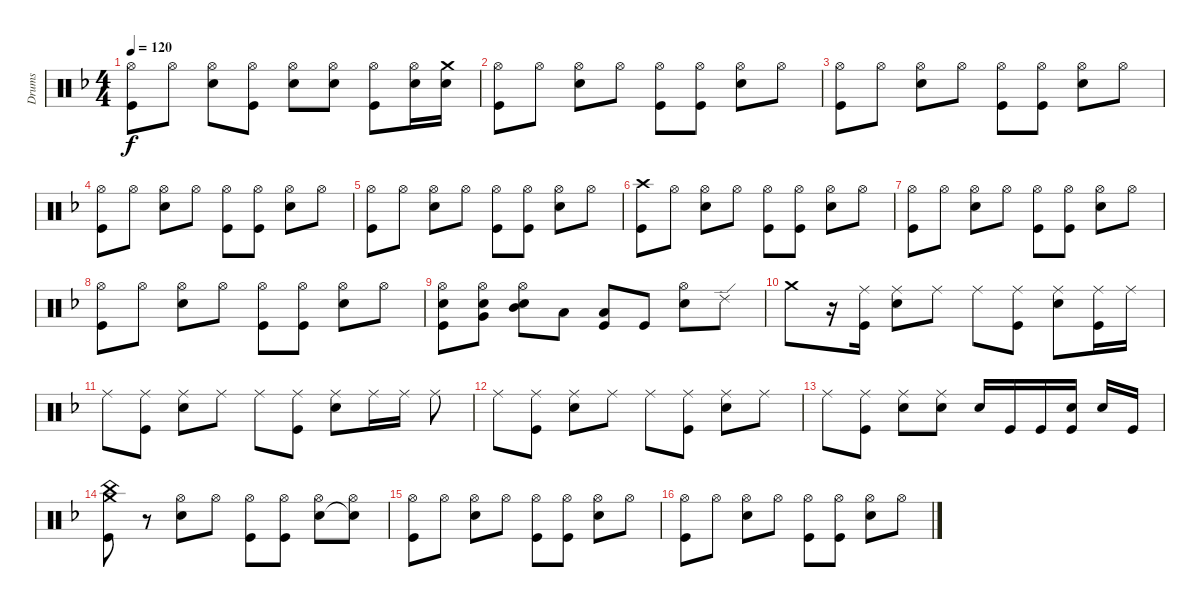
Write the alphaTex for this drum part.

\track ("Drums" "Drums") {instrument percussion}
\staff {score}
\articulation defaults
\ts (4 4)
\tempo 120
\clef neutral
\ks f
("Hi-Hat (open)" "Kick (hit)").8{dy f} "Hi-Hat (open)".8 ("Hi-Hat (open)" "Snare (hit) 2").8 ("Hi-Hat (open)" "Kick (hit)").8 ("Hi-Hat (open)" "Snare (hit) 2").8 ("Hi-Hat (open)" "Snare (hit) 2").8 ("Hi-Hat (open)" "Kick (hit)").8 ("Hi-Hat (open)" "Snare (hit) 2").16 ("Crash medium (hit)" "Snare (hit) 2").16 |
("Hi-Hat (open)" "Kick (hit)").8 "Hi-Hat (open)".8 ("Hi-Hat (open)" "Snare (hit) 2").8 "Hi-Hat (open)".8 ("Hi-Hat (open)" "Kick (hit)").8 ("Hi-Hat (open)" "Kick (hit)").8 ("Hi-Hat (open)" "Snare (hit) 2").8 "Hi-Hat (open)".8 |
("Hi-Hat (open)" "Kick (hit)").8 "Hi-Hat (open)".8 ("Hi-Hat (open)" "Snare (hit) 2").8 "Hi-Hat (open)".8 ("Hi-Hat (open)" "Kick (hit)").8 ("Hi-Hat (open)" "Kick (hit)").8 ("Hi-Hat (open)" "Snare (hit) 2").8 "Hi-Hat (open)".8 |
("Hi-Hat (open)" "Kick (hit)").8 "Hi-Hat (open)".8 ("Hi-Hat (open)" "Snare (hit) 2").8 "Hi-Hat (open)".8 ("Hi-Hat (open)" "Kick (hit)").8 ("Hi-Hat (open)" "Kick (hit)").8 ("Hi-Hat (open)" "Snare (hit) 2").8 "Hi-Hat (open)".8 |
("Hi-Hat (open)" "Kick (hit)").8 "Hi-Hat (open)".8 ("Hi-Hat (open)" "Snare (hit) 2").8 "Hi-Hat (open)".8 ("Hi-Hat (open)" "Kick (hit)").8 ("Hi-Hat (open)" "Kick (hit)").8 ("Hi-Hat (open)" "Snare (hit) 2").8 "Hi-Hat (open)".8 |
("Crash high (hit)" "Kick (hit)").8 "Hi-Hat (open)".8 ("Hi-Hat (open)" "Snare (hit) 2").8 "Hi-Hat (open)".8 ("Hi-Hat (open)" "Kick (hit)").8 ("Hi-Hat (open)" "Kick (hit)").8 ("Hi-Hat (open)" "Snare (hit) 2").8 "Hi-Hat (open)".8 |
("Hi-Hat (open)" "Kick (hit)").8 "Hi-Hat (open)".8 ("Hi-Hat (open)" "Snare (hit) 2").8 "Hi-Hat (open)".8 ("Hi-Hat (open)" "Kick (hit)").8 ("Hi-Hat (open)" "Kick (hit)").8 ("Hi-Hat (open)" "Snare (hit) 2").8 "Hi-Hat (open)".8 |
("Hi-Hat (open)" "Kick (hit)").8 "Hi-Hat (open)".8 ("Hi-Hat (open)" "Snare (hit) 2").8 "Hi-Hat (open)".8 ("Hi-Hat (open)" "Kick (hit)").8 ("Hi-Hat (open)" "Kick (hit)").8 ("Hi-Hat (open)" "Snare (hit) 2").8 "Hi-Hat (open)".8 |
("Hi-Hat (open)" "Snare (hit) 2" "Kick (hit)").8 ("Hi-Hat (open)" "Snare (hit) 2" "Very Low Tom (hit)").8 ("Hi-Hat (open)" "Snare (hit) 2" "Mid Tom (hit)").8 "Low Tom (hit)".8 ("Low Tom (hit)" "Kick (hit)").8 "Kick (hit)".8 ("Hi-Hat (open)" "Snare (hit) 2").8 "Ride (edge) 2".8 |
"Crash medium (hit)".8 r.16 ("Ride (middle)" "Kick (hit)").16 ("Ride (middle)" "Snare (hit) 2").8 "Ride (middle)".8 "Ride (middle)".8 ("Ride (middle)" "Kick (hit)").8 ("Ride (middle)" "Snare (hit) 2").8 ("Ride (middle)" "Kick (hit)").16 "Ride (middle)".16 |
"Ride (middle)".8 ("Ride (middle)" "Kick (hit)").8 ("Ride (middle)" "Snare (hit) 2").8 "Ride (middle)".8 "Ride (middle)".8 ("Ride (middle)" "Kick (hit)").8 ("Ride (middle)" "Snare (hit) 2").8 "Ride (middle)".16 "Ride (middle)".16 "Ride (middle)".8 |
"Ride (middle)".8 ("Ride (middle)" "Kick (hit)").8 ("Ride (middle)" "Snare (hit) 2").8 "Ride (middle)".8 "Ride (middle)".8 ("Ride (middle)" "Kick (hit)").8 ("Ride (middle)" "Snare (hit) 2").8 "Ride (middle)".8 |
"Ride (middle)".8 ("Ride (middle)" "Kick (hit)").8 ("Ride (middle)" "Snare (hit) 2").8 ("Ride (middle)" "Snare (hit) 2").8 "Snare (hit) 2".16 "Kick (hit)".16 "Kick (hit)".16 ("Snare (hit) 2" "Kick (hit)").16 "Snare (hit) 2".16 "Kick (hit)".16 |
("Crash medium (hit)" "China (hit)" "Kick (hit)").8 r.8 ("Hi-Hat (open)" "Snare (hit) 2").8 "Hi-Hat (open)".8 ("Hi-Hat (open)" "Kick (hit)").8 ("Hi-Hat (open)" "Kick (hit)").8 ("Hi-Hat (open)" "Snare (hit) 2").8 ("Hi-Hat (open)" "Snare (hit)"{t}).8 |
("Hi-Hat (open)" "Kick (hit)").8 "Hi-Hat (open)".8 ("Hi-Hat (open)" "Snare (hit) 2").8 "Hi-Hat (open)".8 ("Hi-Hat (open)" "Kick (hit)").8 ("Hi-Hat (open)" "Kick (hit)").8 ("Hi-Hat (open)" "Snare (hit) 2").8 "Hi-Hat (open)".8 |
("Hi-Hat (open)" "Kick (hit)").8 "Hi-Hat (open)".8 ("Hi-Hat (open)" "Snare (hit) 2").8 "Hi-Hat (open)".8 ("Hi-Hat (open)" "Kick (hit)").8 ("Hi-Hat (open)" "Kick (hit)").8 ("Hi-Hat (open)" "Snare (hit) 2").8 "Hi-Hat (open)".8
